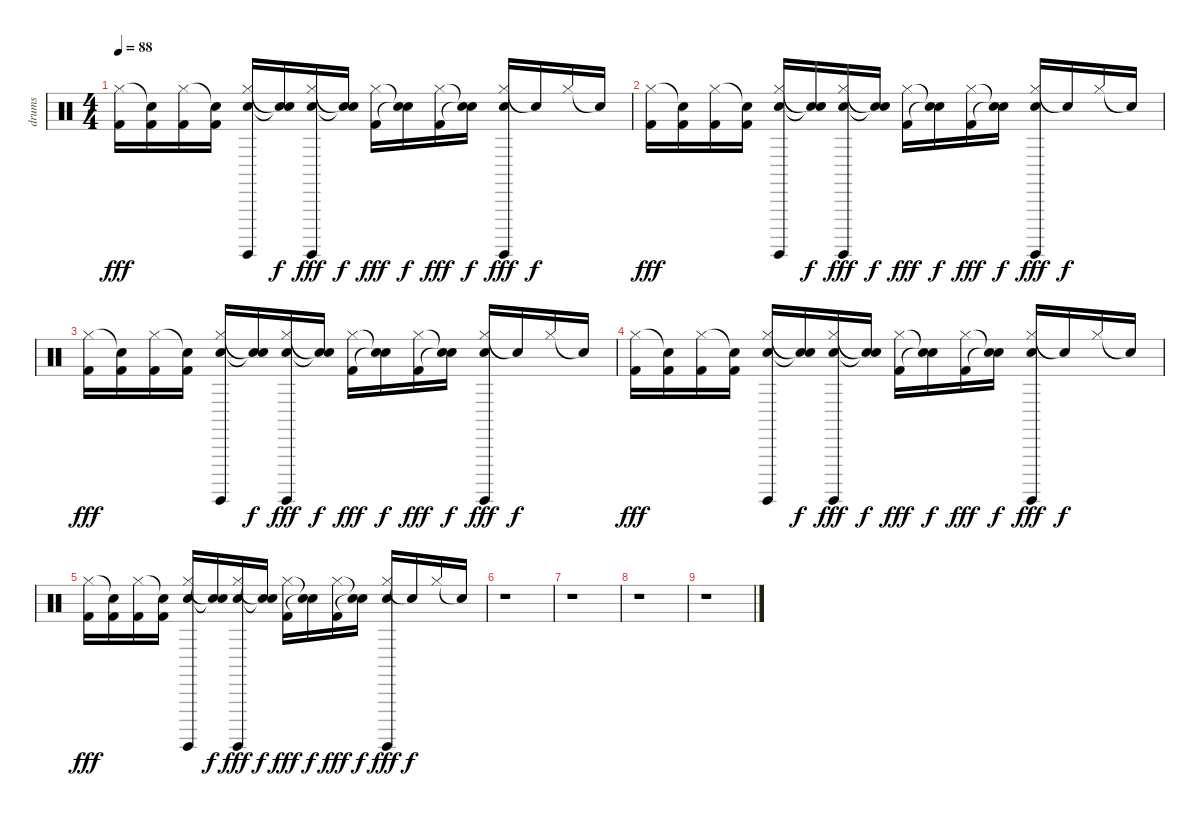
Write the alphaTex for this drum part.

\track ("drums" "drums") {instrument percussion}
\staff {score}
\articulation defaults
\ts (4 4)
\tempo 88
\clef neutral
\ks c
("Hi-Hat (closed)" "Kick (hit) 2").16{dy fff} ("Snare (hit)"{t} "Kick (hit) 2").16 ("Hi-Hat (closed)" "Kick (hit) 2").16 ("Snare (hit)"{t} "Kick (hit) 2").16 ("Hi-Hat (closed)" "Snare (hit) 2" "Surdo (hit)").16 ("Snare (hit)"{t} "Snare (hit)"{t}).16{dy f} ("Hi-Hat (closed)" "Snare (hit) 2" "Surdo (hit)").16{dy fff} ("Snare (hit)"{t} "Snare (hit)"{t}).16{dy f} ("Hi-Hat (closed)" "Kick (hit) 2").16{dy fff} ("Snare (hit)"{t} "Snare (hit)"{t}).16{dy f} ("Hi-Hat (closed)" "Kick (hit) 2").16{dy fff} ("Snare (hit)"{t} "Snare (hit)"{t}).16{dy f} ("Hi-Hat (closed)" "Snare (hit) 2" "Surdo (hit)").16{dy fff} "Snare (hit)"{t}.16{dy f} "Hi-Hat (closed)".16 "Snare (hit)"{t}.16 |
("Hi-Hat (closed)" "Kick (hit) 2").16{dy fff} ("Snare (hit)"{t} "Kick (hit) 2").16 ("Hi-Hat (closed)" "Kick (hit) 2").16 ("Snare (hit)"{t} "Kick (hit) 2").16 ("Hi-Hat (closed)" "Snare (hit) 2" "Surdo (hit)").16 ("Snare (hit)"{t} "Snare (hit)"{t}).16{dy f} ("Hi-Hat (closed)" "Snare (hit) 2" "Surdo (hit)").16{dy fff} ("Snare (hit)"{t} "Snare (hit)"{t}).16{dy f} ("Hi-Hat (closed)" "Kick (hit) 2").16{dy fff} ("Snare (hit)"{t} "Snare (hit)"{t}).16{dy f} ("Hi-Hat (closed)" "Kick (hit) 2").16{dy fff} ("Snare (hit)"{t} "Snare (hit)"{t}).16{dy f} ("Hi-Hat (closed)" "Snare (hit) 2" "Surdo (hit)").16{dy fff} "Snare (hit)"{t}.16{dy f} "Hi-Hat (closed)".16 "Snare (hit)"{t}.16 |
("Hi-Hat (closed)" "Kick (hit) 2").16{dy fff} ("Snare (hit)"{t} "Kick (hit) 2").16 ("Hi-Hat (closed)" "Kick (hit) 2").16 ("Snare (hit)"{t} "Kick (hit) 2").16 ("Hi-Hat (closed)" "Snare (hit) 2" "Surdo (hit)").16 ("Snare (hit)"{t} "Snare (hit)"{t}).16{dy f} ("Hi-Hat (closed)" "Snare (hit) 2" "Surdo (hit)").16{dy fff} ("Snare (hit)"{t} "Snare (hit)"{t}).16{dy f} ("Hi-Hat (closed)" "Kick (hit) 2").16{dy fff} ("Snare (hit)"{t} "Snare (hit)"{t}).16{dy f} ("Hi-Hat (closed)" "Kick (hit) 2").16{dy fff} ("Snare (hit)"{t} "Snare (hit)"{t}).16{dy f} ("Hi-Hat (closed)" "Snare (hit) 2" "Surdo (hit)").16{dy fff} "Snare (hit)"{t}.16{dy f} "Hi-Hat (closed)".16 "Snare (hit)"{t}.16 |
("Hi-Hat (closed)" "Kick (hit) 2").16{dy fff} ("Snare (hit)"{t} "Kick (hit) 2").16 ("Hi-Hat (closed)" "Kick (hit) 2").16 ("Snare (hit)"{t} "Kick (hit) 2").16 ("Hi-Hat (closed)" "Snare (hit) 2" "Surdo (hit)").16 ("Snare (hit)"{t} "Snare (hit)"{t}).16{dy f} ("Hi-Hat (closed)" "Snare (hit) 2" "Surdo (hit)").16{dy fff} ("Snare (hit)"{t} "Snare (hit)"{t}).16{dy f} ("Hi-Hat (closed)" "Kick (hit) 2").16{dy fff} ("Snare (hit)"{t} "Snare (hit)"{t}).16{dy f} ("Hi-Hat (closed)" "Kick (hit) 2").16{dy fff} ("Snare (hit)"{t} "Snare (hit)"{t}).16{dy f} ("Hi-Hat (closed)" "Snare (hit) 2" "Surdo (hit)").16{dy fff} "Snare (hit)"{t}.16{dy f} "Hi-Hat (closed)".16 "Snare (hit)"{t}.16 |
("Hi-Hat (closed)" "Kick (hit) 2").16{dy fff} ("Snare (hit)"{t} "Kick (hit) 2").16 ("Hi-Hat (closed)" "Kick (hit) 2").16 ("Snare (hit)"{t} "Kick (hit) 2").16 ("Hi-Hat (closed)" "Snare (hit) 2" "Surdo (hit)").16 ("Snare (hit)"{t} "Snare (hit)"{t}).16{dy f} ("Hi-Hat (closed)" "Snare (hit) 2" "Surdo (hit)").16{dy fff} ("Snare (hit)"{t} "Snare (hit)"{t}).16{dy f} ("Hi-Hat (closed)" "Kick (hit) 2").16{dy fff} ("Snare (hit)"{t} "Snare (hit)"{t}).16{dy f} ("Hi-Hat (closed)" "Kick (hit) 2").16{dy fff} ("Snare (hit)"{t} "Snare (hit)"{t}).16{dy f} ("Hi-Hat (closed)" "Snare (hit) 2" "Surdo (hit)").16{dy fff} "Snare (hit)"{t}.16{dy f} "Hi-Hat (closed)".16 "Snare (hit)"{t}.16 |
r.1 |
r.1 |
r.1 |
r.1
